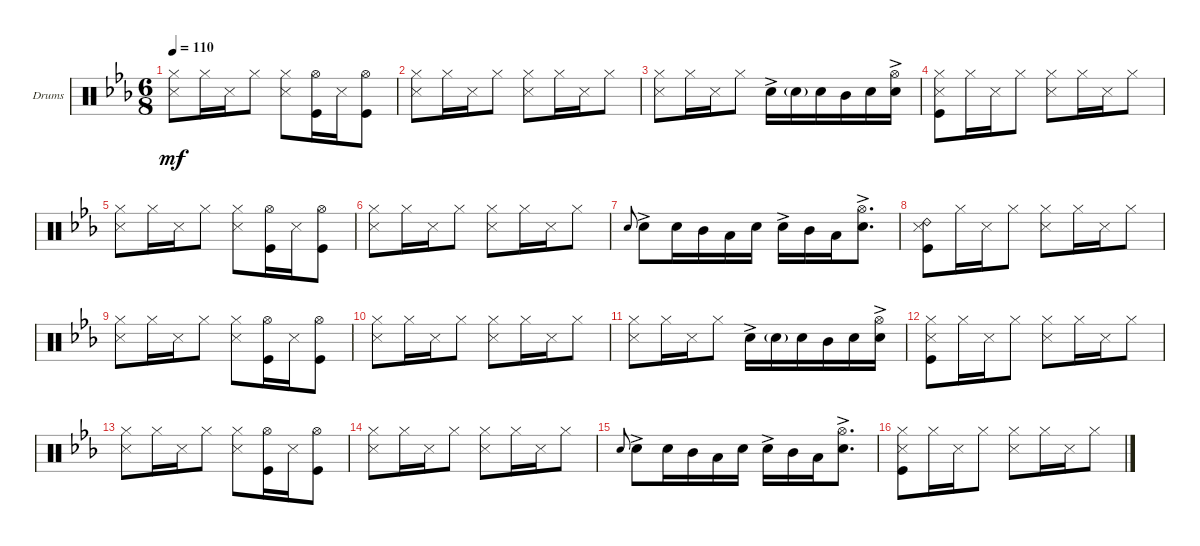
\bracketExtendMode groupsimilarinstruments
\firstSystemTrackNameOrientation horizontal
\otherSystemsTrackNameOrientation horizontal
\track ("Drumkit" "Drums") {instrument percussion}
\staff {score}
\articulation defaults
\ts (6 8)
\tempo 110
\clef neutral
\ks cminor
("Snare (side stick) 3" "Hi-Hat (closed)").8{dy mf} "Hi-Hat (closed)".16 "Snare (side stick) 3".16 "Hi-Hat (closed)".8 ("Snare (side stick) 3" "Hi-Hat (closed)").8 ("Hi-Hat (open)" "Kick (hit)").16 "Snare (side stick) 3".16 ("Hi-Hat (open)" "Kick (hit)").8 |
("Snare (side stick) 3" "Hi-Hat (closed)").8 "Hi-Hat (closed)".16 "Snare (side stick) 3".16 "Hi-Hat (closed)".8 ("Snare (side stick) 3" "Hi-Hat (closed)").8 "Hi-Hat (closed)".16 "Snare (side stick) 3".16 "Hi-Hat (closed)".8 |
("Snare (side stick) 3" "Hi-Hat (closed)").8 "Hi-Hat (closed)".16 "Snare (side stick) 3".16 "Hi-Hat (closed)".8 "Snare (hit) 2"{ac}.16 "Snare (hit) 2"{g}.16 "Snare (hit) 2".16 "Mid Tom (hit)".16 "Snare (hit) 2".16 ("Snare (hit) 2"{ac} "Hi-Hat (open)").16 |
("Kick (hit)" "Snare (side stick) 3" "Hi-Hat (closed)").8 "Hi-Hat (closed)".16 "Snare (side stick) 3".16 "Hi-Hat (closed)".8 ("Snare (side stick) 3" "Hi-Hat (closed)").8 "Hi-Hat (closed)".16 "Snare (side stick) 3".16 "Hi-Hat (closed)".8 |
("Snare (side stick) 3" "Hi-Hat (closed)").8 "Hi-Hat (closed)".16 "Snare (side stick) 3".16 "Hi-Hat (closed)".8 ("Snare (side stick) 3" "Hi-Hat (closed)").8 ("Hi-Hat (open)" "Kick (hit)").16 "Snare (side stick) 3".16 ("Hi-Hat (open)" "Kick (hit)").8 |
("Snare (side stick) 3" "Hi-Hat (closed)").8 "Hi-Hat (closed)".16 "Snare (side stick) 3".16 "Hi-Hat (closed)".8 ("Snare (side stick) 3" "Hi-Hat (closed)").8 "Hi-Hat (closed)".16 "Snare (side stick) 3".16 "Hi-Hat (closed)".8 |
"Snare (hit) 2".8{gr onbeat} "Snare (hit) 2"{ac}.8 "Snare (hit) 2".16 "Mid Tom (hit)".16 "Low Tom (hit)".16 "Snare (hit) 2".16 "Snare (hit) 2"{ac}.16 "Mid Tom (hit)".16 "Low Tom (hit)".16 ("Snare (hit) 2"{ac} "Hi-Hat (open)").8{d} |
("Kick (hit)" "Snare (side stick) 3" "Ride (bell) 2").8 "Hi-Hat (closed)".16 "Snare (side stick) 3".16 "Hi-Hat (closed)".8 ("Snare (side stick) 3" "Hi-Hat (closed)").8 "Hi-Hat (closed)".16 "Snare (side stick) 3".16 "Hi-Hat (closed)".8 |
("Snare (side stick) 3" "Hi-Hat (closed)").8 "Hi-Hat (closed)".16 "Snare (side stick) 3".16 "Hi-Hat (closed)".8 ("Snare (side stick) 3" "Hi-Hat (closed)").8 ("Hi-Hat (open)" "Kick (hit)").16 "Snare (side stick) 3".16 ("Hi-Hat (open)" "Kick (hit)").8 |
("Snare (side stick) 3" "Hi-Hat (closed)").8 "Hi-Hat (closed)".16 "Snare (side stick) 3".16 "Hi-Hat (closed)".8 ("Snare (side stick) 3" "Hi-Hat (closed)").8 "Hi-Hat (closed)".16 "Snare (side stick) 3".16 "Hi-Hat (closed)".8 |
("Snare (side stick) 3" "Hi-Hat (closed)").8 "Hi-Hat (closed)".16 "Snare (side stick) 3".16 "Hi-Hat (closed)".8 "Snare (hit) 2"{ac}.16 "Snare (hit) 2"{g}.16 "Snare (hit) 2".16 "Mid Tom (hit)".16 "Snare (hit) 2".16 ("Snare (hit) 2"{ac} "Hi-Hat (open)").16 |
("Kick (hit)" "Snare (side stick) 3" "Hi-Hat (closed)").8 "Hi-Hat (closed)".16 "Snare (side stick) 3".16 "Hi-Hat (closed)".8 ("Snare (side stick) 3" "Hi-Hat (closed)").8 "Hi-Hat (closed)".16 "Snare (side stick) 3".16 "Hi-Hat (closed)".8 |
("Snare (side stick) 3" "Hi-Hat (closed)").8 "Hi-Hat (closed)".16 "Snare (side stick) 3".16 "Hi-Hat (closed)".8 ("Snare (side stick) 3" "Hi-Hat (closed)").8 ("Hi-Hat (open)" "Kick (hit)").16 "Snare (side stick) 3".16 ("Hi-Hat (open)" "Kick (hit)").8 |
("Snare (side stick) 3" "Hi-Hat (closed)").8 "Hi-Hat (closed)".16 "Snare (side stick) 3".16 "Hi-Hat (closed)".8 ("Snare (side stick) 3" "Hi-Hat (closed)").8 "Hi-Hat (closed)".16 "Snare (side stick) 3".16 "Hi-Hat (closed)".8 |
"Snare (hit) 2".8{gr onbeat} "Snare (hit) 2"{ac}.8 "Snare (hit) 2".16 "Mid Tom (hit)".16 "Low Tom (hit)".16 "Snare (hit) 2".16 "Snare (hit) 2"{ac}.16 "Mid Tom (hit)".16 "Low Tom (hit)".16 ("Snare (hit) 2"{ac} "Hi-Hat (open)").8{d} |
("Kick (hit)" "Snare (side stick) 3" "Hi-Hat (closed)").8 "Hi-Hat (closed)".16 "Snare (side stick) 3".16 "Hi-Hat (closed)".8 ("Snare (side stick) 3" "Hi-Hat (closed)").8 "Hi-Hat (closed)".16 "Snare (side stick) 3".16 "Hi-Hat (closed)".8
